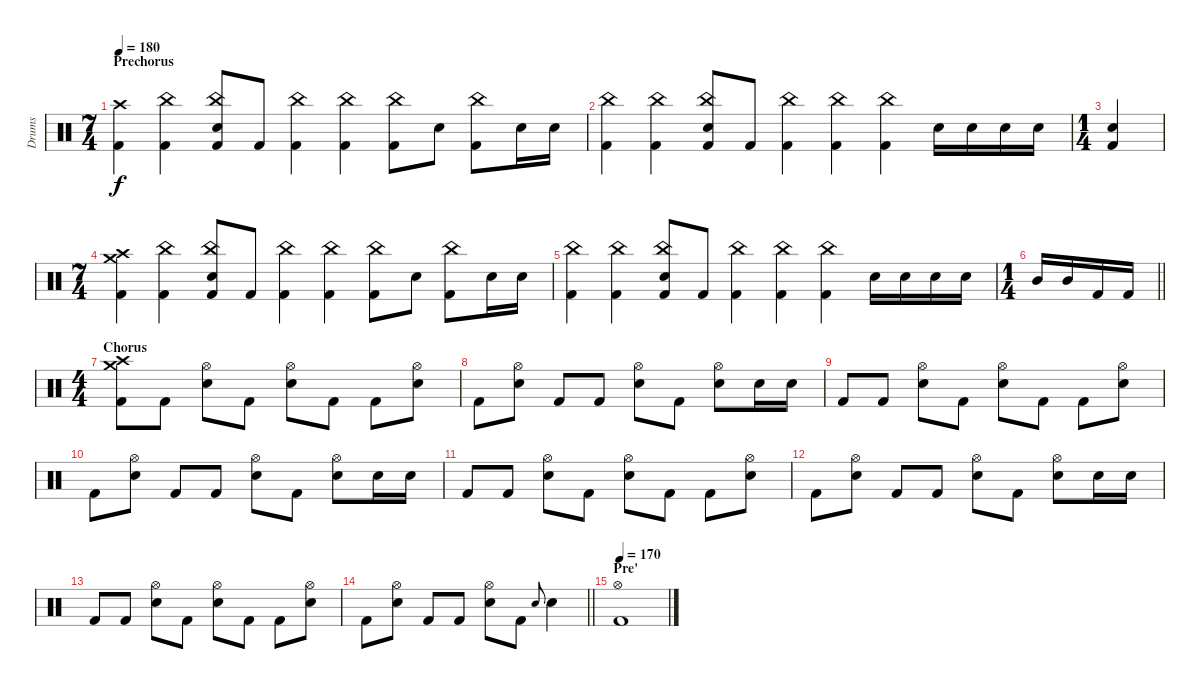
\track ("Drums" "Drums") {instrument percussion}
\staff {score}
\articulation defaults
\ts (7 4)
\section ("" "Prechorus")
\tempo 180
\clef neutral
\ks c
("Crash high (hit)" "Kick (hit) 2").4{dy f} ("China (hit)" "Kick (hit) 2").4 ("China (hit)" "Electric Snare (hit)" "Kick (hit) 2").8 "Kick (hit) 2".8 ("China (hit)" "Kick (hit) 2").4 ("China (hit)" "Kick (hit) 2").4 ("China (hit)" "Kick (hit) 2").8 "Electric Snare (hit)".8 ("China (hit)" "Kick (hit) 2").8 "Electric Snare (hit)".16 "Electric Snare (hit)".16 |
("China (hit)" "Kick (hit) 2").4 ("China (hit)" "Kick (hit) 2").4 ("China (hit)" "Electric Snare (hit)" "Kick (hit) 2").8 "Kick (hit) 2".8 ("China (hit)" "Kick (hit) 2").4 ("China (hit)" "Kick (hit) 2").4 ("China (hit)" "Kick (hit) 2").4 "Electric Snare (hit)".16 "Electric Snare (hit)".16 "Electric Snare (hit)".16 "Electric Snare (hit)".16 |
\ts (1 4)
("Electric Snare (hit)" "Kick (hit) 2").4 |
\ts (7 4)
("Crash high (hit)" "Crash medium (hit)" "Kick (hit) 2").4 ("China (hit)" "Kick (hit) 2").4 ("China (hit)" "Electric Snare (hit)" "Kick (hit) 2").8 "Kick (hit) 2".8 ("China (hit)" "Kick (hit) 2").4 ("China (hit)" "Kick (hit) 2").4 ("China (hit)" "Kick (hit) 2").8 "Electric Snare (hit)".8 ("China (hit)" "Kick (hit) 2").8 "Electric Snare (hit)".16 "Electric Snare (hit)".16 |
("China (hit)" "Kick (hit) 2").4 ("China (hit)" "Kick (hit) 2").4 ("China (hit)" "Electric Snare (hit)" "Kick (hit) 2").8 "Kick (hit) 2".8 ("China (hit)" "Kick (hit) 2").4 ("China (hit)" "Kick (hit) 2").4 ("China (hit)" "Kick (hit) 2").4 "Electric Snare (hit)".16 "Electric Snare (hit)".16 "Electric Snare (hit)".16 "Electric Snare (hit)".16 |
\ts (1 4)
\barLineRight lightlight "Mid Tom (hit)".16 "Mid Tom (hit)".16 "Kick (hit) 2".16 "Kick (hit) 2".16
|
\ts (4 4)
\section ("" "Chorus")
("Crash high (hit)" "Crash medium (hit)" "Kick (hit) 2").8 "Kick (hit) 2".8 ("Hi-Hat (open)" "Electric Snare (hit)").8 "Kick (hit) 2".8 ("Hi-Hat (open)" "Electric Snare (hit)").8 "Kick (hit) 2".8 "Kick (hit) 2".8 ("Hi-Hat (open)" "Electric Snare (hit)").8 |
"Kick (hit) 2".8 ("Hi-Hat (open)" "Electric Snare (hit)").8 "Kick (hit) 2".8 "Kick (hit) 2".8 ("Hi-Hat (open)" "Electric Snare (hit)").8 "Kick (hit) 2".8 ("Hi-Hat (open)" "Electric Snare (hit)").8 "Electric Snare (hit)".16 "Electric Snare (hit)".16 |
"Kick (hit) 2".8 "Kick (hit) 2".8 ("Hi-Hat (open)" "Electric Snare (hit)").8 "Kick (hit) 2".8 ("Hi-Hat (open)" "Electric Snare (hit)").8 "Kick (hit) 2".8 "Kick (hit) 2".8 ("Hi-Hat (open)" "Electric Snare (hit)").8 |
"Kick (hit) 2".8 ("Hi-Hat (open)" "Electric Snare (hit)").8 "Kick (hit) 2".8 "Kick (hit) 2".8 ("Hi-Hat (open)" "Electric Snare (hit)").8 "Kick (hit) 2".8 ("Hi-Hat (open)" "Electric Snare (hit)").8 "Electric Snare (hit)".16 "Electric Snare (hit)".16 |
"Kick (hit) 2".8 "Kick (hit) 2".8 ("Hi-Hat (open)" "Electric Snare (hit)").8 "Kick (hit) 2".8 ("Hi-Hat (open)" "Electric Snare (hit)").8 "Kick (hit) 2".8 "Kick (hit) 2".8 ("Hi-Hat (open)" "Electric Snare (hit)").8 |
"Kick (hit) 2".8 ("Hi-Hat (open)" "Electric Snare (hit)").8 "Kick (hit) 2".8 "Kick (hit) 2".8 ("Hi-Hat (open)" "Electric Snare (hit)").8 "Kick (hit) 2".8 ("Hi-Hat (open)" "Electric Snare (hit)").8 "Electric Snare (hit)".16 "Electric Snare (hit)".16 |
"Kick (hit) 2".8 "Kick (hit) 2".8 ("Hi-Hat (open)" "Electric Snare (hit)").8 "Kick (hit) 2".8 ("Hi-Hat (open)" "Electric Snare (hit)").8 "Kick (hit) 2".8 "Kick (hit) 2".8 ("Hi-Hat (open)" "Electric Snare (hit)").8 |
\barLineRight lightlight "Kick (hit) 2".8
("Hi-Hat (open)" "Electric Snare (hit)").8 "Kick (hit) 2".8 "Kick (hit) 2".8 ("Hi-Hat (open)" "Electric Snare (hit)").8 "Kick (hit) 2".8 "Electric Snare (hit)".8{gr onbeat} "Electric Snare (hit)".4 |
\section ("" "Pre'")
\tempo 170
("Hi-Hat (open)" "Kick (hit) 2").1
